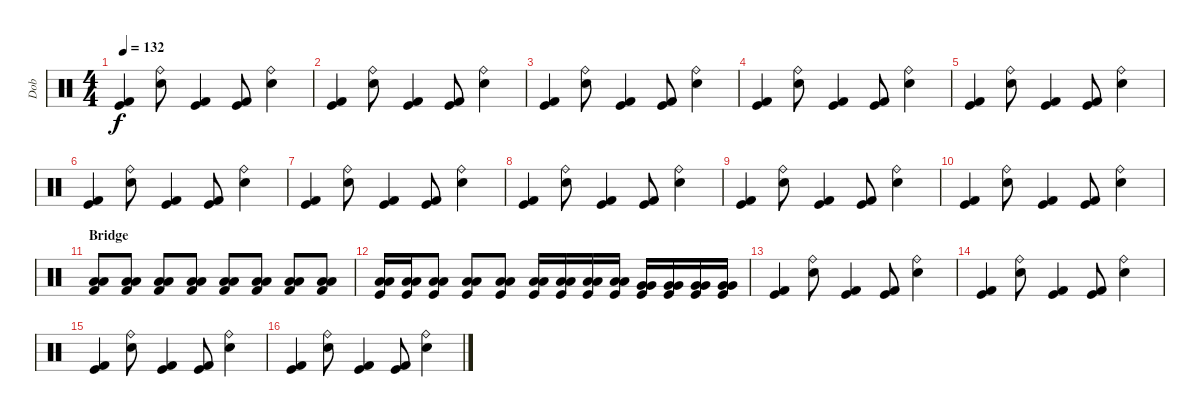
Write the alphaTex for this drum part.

\track ("Dob" "Dob") {instrument percussion}
\staff {score}
\articulation defaults
\ts (4 4)
\tempo 132
\clef neutral
\ks c
("Kick (hit)" "Kick (hit) 2").4{dy f} ("Snare (hit) 2" "Ride (bell)").8 ("Kick (hit)" "Kick (hit) 2").4 ("Kick (hit)" "Kick (hit) 2").8 ("Snare (hit) 2" "Ride (bell)").4 |
("Kick (hit)" "Kick (hit) 2").4 ("Snare (hit) 2" "Ride (bell)").8 ("Kick (hit)" "Kick (hit) 2").4 ("Kick (hit)" "Kick (hit) 2").8 ("Snare (hit) 2" "Ride (bell)").4 |
("Kick (hit)" "Kick (hit) 2").4 ("Snare (hit) 2" "Ride (bell)").8 ("Kick (hit)" "Kick (hit) 2").4 ("Kick (hit)" "Kick (hit) 2").8 ("Snare (hit) 2" "Ride (bell)").4 |
("Kick (hit)" "Kick (hit) 2").4 ("Snare (hit) 2" "Ride (bell)").8 ("Kick (hit)" "Kick (hit) 2").4 ("Kick (hit)" "Kick (hit) 2").8 ("Snare (hit) 2" "Ride (bell)").4 |
("Kick (hit)" "Kick (hit) 2").4 ("Snare (hit) 2" "Ride (bell)").8 ("Kick (hit)" "Kick (hit) 2").4 ("Kick (hit)" "Kick (hit) 2").8 ("Snare (hit) 2" "Ride (bell)").4 |
("Kick (hit)" "Kick (hit) 2").4 ("Snare (hit) 2" "Ride (bell)").8 ("Kick (hit)" "Kick (hit) 2").4 ("Kick (hit)" "Kick (hit) 2").8 ("Snare (hit) 2" "Ride (bell)").4 |
("Kick (hit)" "Kick (hit) 2").4 ("Snare (hit) 2" "Ride (bell)").8 ("Kick (hit)" "Kick (hit) 2").4 ("Kick (hit)" "Kick (hit) 2").8 ("Snare (hit) 2" "Ride (bell)").4 |
("Kick (hit)" "Kick (hit) 2").4 ("Snare (hit) 2" "Ride (bell)").8 ("Kick (hit)" "Kick (hit) 2").4 ("Kick (hit)" "Kick (hit) 2").8 ("Snare (hit) 2" "Ride (bell)").4 |
("Kick (hit)" "Kick (hit) 2").4 ("Snare (hit) 2" "Ride (bell)").8 ("Kick (hit)" "Kick (hit) 2").4 ("Kick (hit)" "Kick (hit) 2").8 ("Snare (hit) 2" "Ride (bell)").4 |
("Kick (hit)" "Kick (hit) 2").4 ("Snare (hit) 2" "Ride (bell)").8 ("Kick (hit)" "Kick (hit) 2").4 ("Kick (hit)" "Kick (hit) 2").8 ("Snare (hit) 2" "Ride (bell)").4 |
\section ("" "Bridge")
("Kick (hit) 2" "Low Tom (hit)" "Low Tom (hit)").8 ("Kick (hit) 2" "Low Tom (hit)" "Low Tom (hit)").8 ("Kick (hit) 2" "Low Tom (hit)" "Low Tom (hit)").8 ("Kick (hit) 2" "Low Tom (hit)" "Low Tom (hit)").8 ("Kick (hit) 2" "Low Tom (hit)" "Low Tom (hit)").8 ("Kick (hit) 2" "Low Tom (hit)" "Low Tom (hit)").8 ("Kick (hit) 2" "Low Tom (hit)" "Low Tom (hit)").8 ("Kick (hit) 2" "Low Tom (hit)" "Low Tom (hit)").8 |
("Kick (hit)" "Low Tom (hit)" "Low Tom (hit)").16 ("Kick (hit)" "Low Tom (hit)" "Low Tom (hit)").16 ("Kick (hit)" "Low Tom (hit)" "Low Tom (hit)").8 ("Kick (hit)" "Low Tom (hit)" "Low Tom (hit)").8 ("Kick (hit)" "Low Tom (hit)" "Low Tom (hit)").8 ("Kick (hit)" "Low Tom (hit)" "Low Tom (hit)").16 ("Kick (hit)" "Low Tom (hit)" "Low Tom (hit)").16 ("Kick (hit)" "Low Tom (hit)" "Low Tom (hit)").16 ("Kick (hit)" "Low Tom (hit)" "Low Tom (hit)").16 ("Kick (hit)" "Very Low Tom (hit)" "Very Low Tom (hit)").16 ("Kick (hit)" "Very Low Tom (hit)" "Very Low Tom (hit)").16 ("Kick (hit)" "Very Low Tom (hit)" "Very Low Tom (hit)").16 ("Kick (hit)" "Very Low Tom (hit)" "Very Low Tom (hit)").16 |
("Kick (hit)" "Kick (hit) 2").4 ("Snare (hit) 2" "Ride (bell)").8 ("Kick (hit)" "Kick (hit) 2").4 ("Kick (hit)" "Kick (hit) 2").8 ("Snare (hit) 2" "Ride (bell)").4 |
("Kick (hit)" "Kick (hit) 2").4 ("Snare (hit) 2" "Ride (bell)").8 ("Kick (hit)" "Kick (hit) 2").4 ("Kick (hit)" "Kick (hit) 2").8 ("Snare (hit) 2" "Ride (bell)").4 |
("Kick (hit)" "Kick (hit) 2").4 ("Snare (hit) 2" "Ride (bell)").8 ("Kick (hit)" "Kick (hit) 2").4 ("Kick (hit)" "Kick (hit) 2").8 ("Snare (hit) 2" "Ride (bell)").4 |
("Kick (hit)" "Kick (hit) 2").4 ("Snare (hit) 2" "Ride (bell)").8 ("Kick (hit)" "Kick (hit) 2").4 ("Kick (hit)" "Kick (hit) 2").8 ("Snare (hit) 2" "Ride (bell)").4
